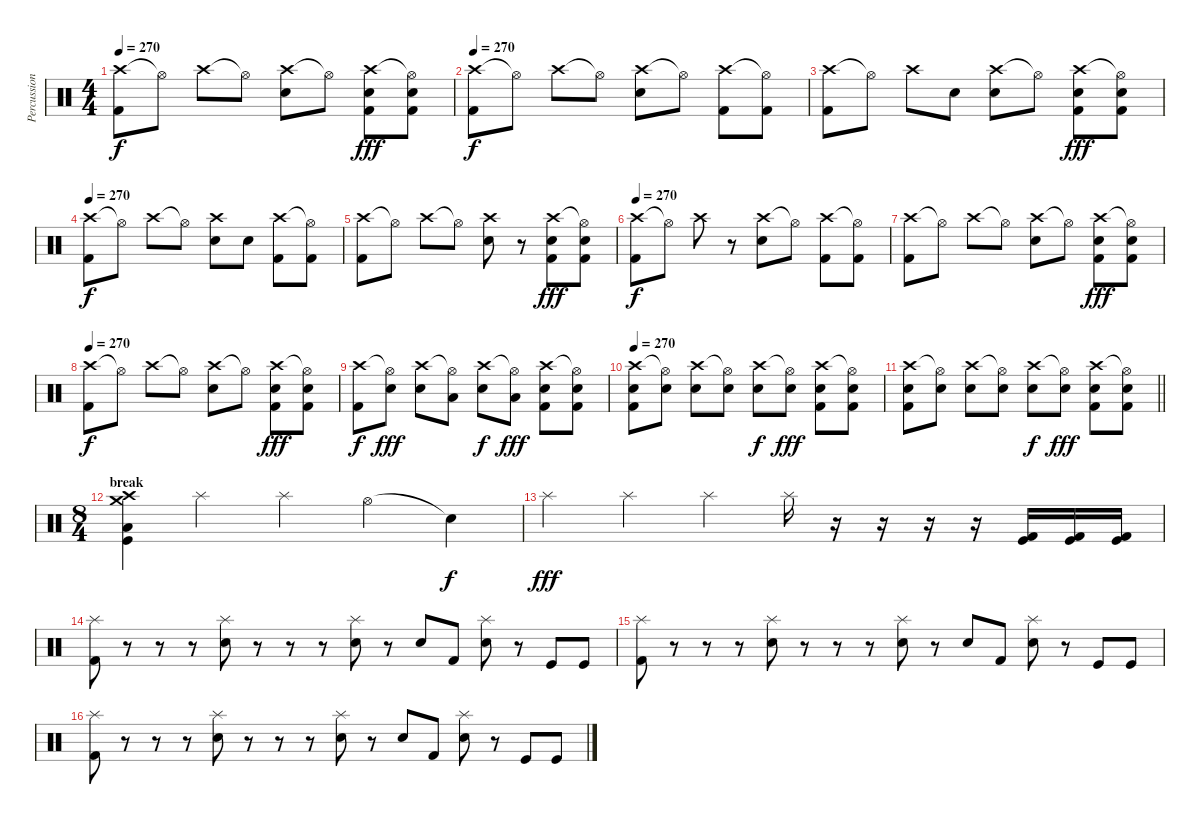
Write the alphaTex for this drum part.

\track ("Percussion" "Percussion") {instrument percussion}
\staff {score}
\articulation defaults
\ts (4 4)
\tempo 270
\clef neutral
\ks c
("Crash high (hit)" "Kick (hit) 2").8{dy f} "Hi-Hat (open)"{t}.8 "Crash high (hit)".8 "Hi-Hat (open)"{t}.8 ("Crash high (hit)" "Electric Snare (hit)").8 "Hi-Hat (open)"{t}.8 ("Crash high (hit)" "Electric Snare (hit)" "Kick (hit) 2").8{dy fff} ("Hi-Hat (open)"{t} "Electric Snare (hit)" "Kick (hit) 2").8 |
\tempo 270
("Crash high (hit)" "Kick (hit) 2").8{dy f} "Hi-Hat (open)"{t}.8 "Crash high (hit)".8 "Hi-Hat (open)"{t}.8 ("Crash high (hit)" "Electric Snare (hit)").8 "Hi-Hat (open)"{t}.8 ("Crash high (hit)" "Kick (hit) 2").8 ("Hi-Hat (open)"{t} "Kick (hit) 2").8 |
("Crash high (hit)" "Kick (hit) 2").8 "Hi-Hat (open)"{t}.8 "Crash high (hit)".8 "Snare (hit)".8 ("Crash high (hit)" "Electric Snare (hit)").8 "Hi-Hat (open)"{t}.8 ("Crash high (hit)" "Electric Snare (hit)" "Kick (hit) 2").8{dy fff} ("Hi-Hat (open)"{t} "Electric Snare (hit)" "Kick (hit) 2").8 |
\tempo 270
("Crash high (hit)" "Kick (hit) 2").8{dy f} "Hi-Hat (open)"{t}.8 "Crash high (hit)".8 "Hi-Hat (open)"{t}.8 ("Crash high (hit)" "Electric Snare (hit)").8 "Snare (hit)".8 ("Crash high (hit)" "Kick (hit) 2").8 ("Hi-Hat (open)"{t} "Kick (hit) 2").8 |
("Crash high (hit)" "Kick (hit) 2").8 "Hi-Hat (open)"{t}.8 "Crash high (hit)".8 "Hi-Hat (open)"{t}.8 ("Crash high (hit)" "Electric Snare (hit)").8 r.8 ("Crash high (hit)" "Electric Snare (hit)" "Kick (hit) 2").8{dy fff} ("Hi-Hat (open)"{t} "Electric Snare (hit)" "Kick (hit) 2").8 |
\tempo 270
("Crash high (hit)" "Kick (hit) 2").8{dy f} "Hi-Hat (open)"{t}.8 "Crash high (hit)".8 r.8 ("Crash high (hit)" "Electric Snare (hit)").8 "Hi-Hat (open)"{t}.8 ("Crash high (hit)" "Kick (hit) 2").8 ("Hi-Hat (open)"{t} "Kick (hit) 2").8 |
("Crash high (hit)" "Kick (hit) 2").8 "Hi-Hat (open)"{t}.8 "Crash high (hit)".8 "Hi-Hat (open)"{t}.8 ("Crash high (hit)" "Electric Snare (hit)").8 "Hi-Hat (open)"{t}.8 ("Crash high (hit)" "Electric Snare (hit)" "Kick (hit) 2").8{dy fff} ("Hi-Hat (open)"{t} "Electric Snare (hit)" "Kick (hit) 2").8 |
\tempo 270
("Crash high (hit)" "Kick (hit) 2").8{dy f} "Hi-Hat (open)"{t}.8 "Crash high (hit)".8 "Hi-Hat (open)"{t}.8 ("Crash high (hit)" "Electric Snare (hit)").8 "Hi-Hat (open)"{t}.8 ("Crash high (hit)" "Electric Snare (hit)" "Kick (hit) 2").8{dy fff} ("Hi-Hat (open)"{t} "Electric Snare (hit)" "Kick (hit) 2").8 |
("Crash high (hit)" "Kick (hit) 2").8{dy f} ("Hi-Hat (open)"{t} "Electric Snare (hit)").8{dy fff} ("Crash high (hit)" "Electric Snare (hit)").8 ("Hi-Hat (open)"{t} "Low Floor Tom (hit)").8 ("Crash high (hit)" "Electric Snare (hit)").8{dy f} ("Hi-Hat (open)"{t} "Low Floor Tom (hit)").8{dy fff} ("Crash high (hit)" "Electric Snare (hit)" "Kick (hit) 2").8 ("Hi-Hat (open)"{t} "Electric Snare (hit)" "Kick (hit) 2").8 |
\tempo 270
("Crash high (hit)" "Electric Snare (hit)" "Kick (hit) 2").8 ("Hi-Hat (open)"{t} "Electric Snare (hit)").8 ("Crash high (hit)" "Electric Snare (hit)").8 ("Hi-Hat (open)"{t} "Electric Snare (hit)").8 ("Crash high (hit)" "Electric Snare (hit)").8{dy f} ("Hi-Hat (open)"{t} "Electric Snare (hit)").8{dy fff} ("Crash high (hit)" "Electric Snare (hit)" "Kick (hit) 2").8 ("Hi-Hat (open)"{t} "Electric Snare (hit)" "Kick (hit) 2").8 |
\barLineRight lightlight
("Crash high (hit)" "Electric Snare (hit)" "Kick (hit) 2").8 ("Hi-Hat (open)"{t} "Electric Snare (hit)").8 ("Crash high (hit)" "Electric Snare (hit)").8 ("Hi-Hat (open)"{t} "Electric Snare (hit)").8 ("Crash high (hit)" "Electric Snare (hit)").8{dy f} ("Hi-Hat (open)"{t} "Electric Snare (hit)").8{dy fff} ("Crash high (hit)" "Electric Snare (hit)" "Kick (hit) 2").8 ("Hi-Hat (open)"{t} "Electric Snare (hit)" "Kick (hit) 2").8 |
\ts (8 4)
\section ("" "break")
("Crash high (hit)" "Crash medium (hit)" "Kick (hit)" "Low Floor Tom (hit)").4 "Splash (hit)".2 "Splash (hit)".2 "Hi-Hat (open)".2 "Snare (hit)"{t}.4{dy f} |
"Splash (hit)".2{dy fff} "Splash (hit)".2 "Splash (hit)".2 "Splash (hit)".16 r.16 r.16 r.16 r.16 ("Kick (hit) 2" "Kick (hit)").16 ("Kick (hit) 2" "Kick (hit)").16 ("Kick (hit) 2" "Kick (hit)").16 |
("Splash (hit)" "Kick (hit) 2").8 r.8 r.8 r.8 ("Splash (hit)" "Electric Snare (hit)").8 r.8 r.8 r.8 ("Splash (hit)" "Electric Snare (hit)").8 r.8 "Electric Snare (hit)".8 "Kick (hit) 2".8 ("Splash (hit)" "Electric Snare (hit)").8 r.8 "Kick (hit)".8 "Kick (hit)".8 |
("Splash (hit)" "Kick (hit) 2").8 r.8 r.8 r.8 ("Splash (hit)" "Electric Snare (hit)").8 r.8 r.8 r.8 ("Splash (hit)" "Electric Snare (hit)").8 r.8 "Electric Snare (hit)".8 "Kick (hit) 2".8 ("Splash (hit)" "Electric Snare (hit)").8 r.8 "Kick (hit)".8 "Kick (hit)".8 |
("Splash (hit)" "Kick (hit) 2").8 r.8 r.8 r.8 ("Splash (hit)" "Electric Snare (hit)").8 r.8 r.8 r.8 ("Splash (hit)" "Electric Snare (hit)").8 r.8 "Electric Snare (hit)".8 "Kick (hit) 2".8 ("Splash (hit)" "Electric Snare (hit)").8 r.8 "Kick (hit)".8 "Kick (hit)".8
